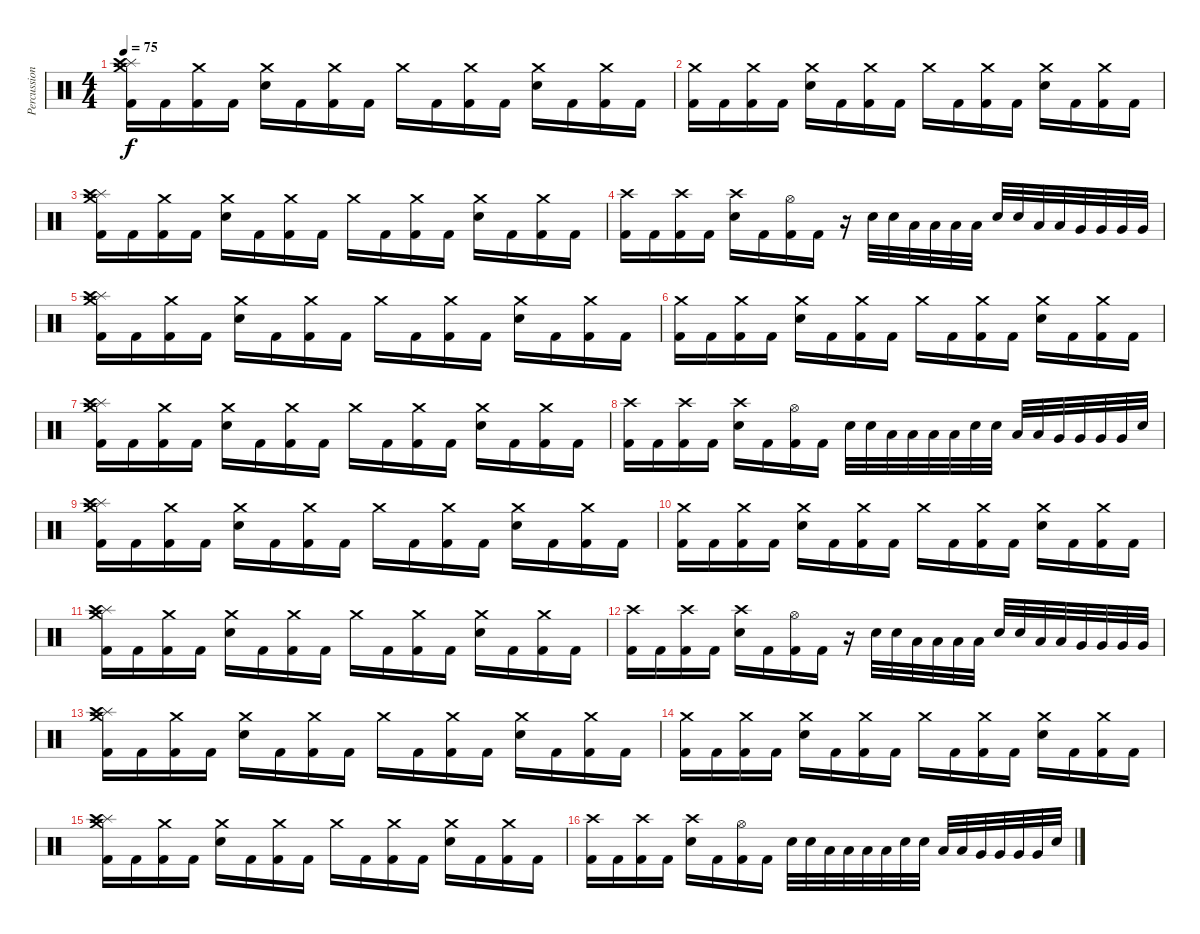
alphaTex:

\track ("Percussion" "Percussion") {instrument percussion}
\staff {score}
\articulation defaults
\ts (4 4)
\tempo 75
\clef neutral
\ks c
("Splash (hit)" "Crash high (hit)" "Crash medium (hit)" "Kick (hit) 2").16{dy f} "Kick (hit) 2".16 ("Crash medium (hit)" "Kick (hit) 2").16 "Kick (hit) 2".16 ("Crash medium (hit)" "Snare (hit) 2").16 "Kick (hit) 2".16 ("Crash medium (hit)" "Kick (hit) 2").16 "Kick (hit) 2".16 "Crash medium (hit)".16 "Kick (hit) 2".16 ("Crash medium (hit)" "Kick (hit) 2").16 "Kick (hit) 2".16 ("Crash medium (hit)" "Snare (hit) 2").16 "Kick (hit) 2".16 ("Crash medium (hit)" "Kick (hit) 2").16 "Kick (hit) 2".16 |
("Crash medium (hit)" "Kick (hit) 2").16 "Kick (hit) 2".16 ("Crash medium (hit)" "Kick (hit) 2").16 "Kick (hit) 2".16 ("Crash medium (hit)" "Snare (hit) 2").16 "Kick (hit) 2".16 ("Crash medium (hit)" "Kick (hit) 2").16 "Kick (hit) 2".16 "Crash medium (hit)".16 "Kick (hit) 2".16 ("Crash medium (hit)" "Kick (hit) 2").16 "Kick (hit) 2".16 ("Crash medium (hit)" "Snare (hit) 2").16 "Kick (hit) 2".16 ("Crash medium (hit)" "Kick (hit) 2").16 "Kick (hit) 2".16 |
("Splash (hit)" "Crash high (hit)" "Crash medium (hit)" "Kick (hit) 2").16 "Kick (hit) 2".16 ("Crash medium (hit)" "Kick (hit) 2").16 "Kick (hit) 2".16 ("Crash medium (hit)" "Snare (hit) 2").16 "Kick (hit) 2".16 ("Crash medium (hit)" "Kick (hit) 2").16 "Kick (hit) 2".16 "Crash medium (hit)".16 "Kick (hit) 2".16 ("Crash medium (hit)" "Kick (hit) 2").16 "Kick (hit) 2".16 ("Crash medium (hit)" "Snare (hit) 2").16 "Kick (hit) 2".16 ("Crash medium (hit)" "Kick (hit) 2").16 "Kick (hit) 2".16 |
("Crash high (hit)" "Kick (hit) 2").16 "Kick (hit) 2".16 ("Crash high (hit)" "Kick (hit) 2").16 "Kick (hit) 2".16 ("Crash high (hit)" "Snare (hit) 2").16 "Kick (hit) 2".16 ("Hi-Hat (open)" "Kick (hit) 2").16 "Kick (hit) 2".16 r.16 "Snare (hit) 2".32 "Snare (hit) 2".32 "Low Tom (hit)".32 "Low Tom (hit)".32 "Low Tom (hit)".32 "Low Tom (hit)".32 "Snare (hit) 2".32 "Snare (hit) 2".32 "Low Tom (hit)".32 "Low Tom (hit)".32 "Very Low Tom (hit)".32 "Very Low Tom (hit)".32 "Very Low Tom (hit)".32 "Very Low Tom (hit)".32 |
("Splash (hit)" "Crash high (hit)" "Crash medium (hit)" "Kick (hit) 2").16 "Kick (hit) 2".16 ("Crash medium (hit)" "Kick (hit) 2").16 "Kick (hit) 2".16 ("Crash medium (hit)" "Snare (hit) 2").16 "Kick (hit) 2".16 ("Crash medium (hit)" "Kick (hit) 2").16 "Kick (hit) 2".16 "Crash medium (hit)".16 "Kick (hit) 2".16 ("Crash medium (hit)" "Kick (hit) 2").16 "Kick (hit) 2".16 ("Crash medium (hit)" "Snare (hit) 2").16 "Kick (hit) 2".16 ("Crash medium (hit)" "Kick (hit) 2").16 "Kick (hit) 2".16 |
("Crash medium (hit)" "Kick (hit) 2").16 "Kick (hit) 2".16 ("Crash medium (hit)" "Kick (hit) 2").16 "Kick (hit) 2".16 ("Crash medium (hit)" "Snare (hit) 2").16 "Kick (hit) 2".16 ("Crash medium (hit)" "Kick (hit) 2").16 "Kick (hit) 2".16 "Crash medium (hit)".16 "Kick (hit) 2".16 ("Crash medium (hit)" "Kick (hit) 2").16 "Kick (hit) 2".16 ("Crash medium (hit)" "Snare (hit) 2").16 "Kick (hit) 2".16 ("Crash medium (hit)" "Kick (hit) 2").16 "Kick (hit) 2".16 |
("Splash (hit)" "Crash high (hit)" "Crash medium (hit)" "Kick (hit) 2").16 "Kick (hit) 2".16 ("Crash medium (hit)" "Kick (hit) 2").16 "Kick (hit) 2".16 ("Crash medium (hit)" "Snare (hit) 2").16 "Kick (hit) 2".16 ("Crash medium (hit)" "Kick (hit) 2").16 "Kick (hit) 2".16 "Crash medium (hit)".16 "Kick (hit) 2".16 ("Crash medium (hit)" "Kick (hit) 2").16 "Kick (hit) 2".16 ("Crash medium (hit)" "Snare (hit) 2").16 "Kick (hit) 2".16 ("Crash medium (hit)" "Kick (hit) 2").16 "Kick (hit) 2".16 |
("Crash high (hit)" "Kick (hit) 2").16 "Kick (hit) 2".16 ("Crash high (hit)" "Kick (hit) 2").16 "Kick (hit) 2".16 ("Crash high (hit)" "Snare (hit) 2").16 "Kick (hit) 2".16 ("Hi-Hat (open)" "Kick (hit) 2").16 "Kick (hit) 2".16 "Snare (hit) 2".32 "Snare (hit) 2".32 "Low Tom (hit)".32 "Low Tom (hit)".32 "Low Tom (hit)".32 "Low Tom (hit)".32 "Snare (hit) 2".32 "Snare (hit) 2".32 "Low Tom (hit)".32 "Low Tom (hit)".32 "Very Low Tom (hit)".32 "Very Low Tom (hit)".32 "Very Low Tom (hit)".32 "Very Low Tom (hit)".32 "Snare (hit) 2".32 |
("Splash (hit)" "Crash high (hit)" "Crash medium (hit)" "Kick (hit) 2").16 "Kick (hit) 2".16 ("Crash medium (hit)" "Kick (hit) 2").16 "Kick (hit) 2".16 ("Crash medium (hit)" "Snare (hit) 2").16 "Kick (hit) 2".16 ("Crash medium (hit)" "Kick (hit) 2").16 "Kick (hit) 2".16 "Crash medium (hit)".16 "Kick (hit) 2".16 ("Crash medium (hit)" "Kick (hit) 2").16 "Kick (hit) 2".16 ("Crash medium (hit)" "Snare (hit) 2").16 "Kick (hit) 2".16 ("Crash medium (hit)" "Kick (hit) 2").16 "Kick (hit) 2".16 |
("Crash medium (hit)" "Kick (hit) 2").16 "Kick (hit) 2".16 ("Crash medium (hit)" "Kick (hit) 2").16 "Kick (hit) 2".16 ("Crash medium (hit)" "Snare (hit) 2").16 "Kick (hit) 2".16 ("Crash medium (hit)" "Kick (hit) 2").16 "Kick (hit) 2".16 "Crash medium (hit)".16 "Kick (hit) 2".16 ("Crash medium (hit)" "Kick (hit) 2").16 "Kick (hit) 2".16 ("Crash medium (hit)" "Snare (hit) 2").16 "Kick (hit) 2".16 ("Crash medium (hit)" "Kick (hit) 2").16 "Kick (hit) 2".16 |
("Splash (hit)" "Crash high (hit)" "Crash medium (hit)" "Kick (hit) 2").16 "Kick (hit) 2".16 ("Crash medium (hit)" "Kick (hit) 2").16 "Kick (hit) 2".16 ("Crash medium (hit)" "Snare (hit) 2").16 "Kick (hit) 2".16 ("Crash medium (hit)" "Kick (hit) 2").16 "Kick (hit) 2".16 "Crash medium (hit)".16 "Kick (hit) 2".16 ("Crash medium (hit)" "Kick (hit) 2").16 "Kick (hit) 2".16 ("Crash medium (hit)" "Snare (hit) 2").16 "Kick (hit) 2".16 ("Crash medium (hit)" "Kick (hit) 2").16 "Kick (hit) 2".16 |
("Crash high (hit)" "Kick (hit) 2").16 "Kick (hit) 2".16 ("Crash high (hit)" "Kick (hit) 2").16 "Kick (hit) 2".16 ("Crash high (hit)" "Snare (hit) 2").16 "Kick (hit) 2".16 ("Hi-Hat (open)" "Kick (hit) 2").16 "Kick (hit) 2".16 r.16 "Snare (hit) 2".32 "Snare (hit) 2".32 "Low Tom (hit)".32 "Low Tom (hit)".32 "Low Tom (hit)".32 "Low Tom (hit)".32 "Snare (hit) 2".32 "Snare (hit) 2".32 "Low Tom (hit)".32 "Low Tom (hit)".32 "Very Low Tom (hit)".32 "Very Low Tom (hit)".32 "Very Low Tom (hit)".32 "Very Low Tom (hit)".32 |
("Splash (hit)" "Crash high (hit)" "Crash medium (hit)" "Kick (hit) 2").16{volume 16} "Kick (hit) 2".16 ("Crash medium (hit)" "Kick (hit) 2").16 "Kick (hit) 2".16 ("Crash medium (hit)" "Snare (hit) 2").16 "Kick (hit) 2".16 ("Crash medium (hit)" "Kick (hit) 2").16 "Kick (hit) 2".16 "Crash medium (hit)".16 "Kick (hit) 2".16 ("Crash medium (hit)" "Kick (hit) 2").16 "Kick (hit) 2".16 ("Crash medium (hit)" "Snare (hit) 2").16 "Kick (hit) 2".16 ("Crash medium (hit)" "Kick (hit) 2").16 "Kick (hit) 2".16 |
("Crash medium (hit)" "Kick (hit) 2").16 "Kick (hit) 2".16 ("Crash medium (hit)" "Kick (hit) 2").16 "Kick (hit) 2".16 ("Crash medium (hit)" "Snare (hit) 2").16 "Kick (hit) 2".16 ("Crash medium (hit)" "Kick (hit) 2").16 "Kick (hit) 2".16 "Crash medium (hit)".16 "Kick (hit) 2".16 ("Crash medium (hit)" "Kick (hit) 2").16 "Kick (hit) 2".16 ("Crash medium (hit)" "Snare (hit) 2").16 "Kick (hit) 2".16 ("Crash medium (hit)" "Kick (hit) 2").16 "Kick (hit) 2".16 |
("Splash (hit)" "Crash high (hit)" "Crash medium (hit)" "Kick (hit) 2").16 "Kick (hit) 2".16 ("Crash medium (hit)" "Kick (hit) 2").16 "Kick (hit) 2".16 ("Crash medium (hit)" "Snare (hit) 2").16 "Kick (hit) 2".16 ("Crash medium (hit)" "Kick (hit) 2").16 "Kick (hit) 2".16 "Crash medium (hit)".16 "Kick (hit) 2".16 ("Crash medium (hit)" "Kick (hit) 2").16 "Kick (hit) 2".16 ("Crash medium (hit)" "Snare (hit) 2").16 "Kick (hit) 2".16 ("Crash medium (hit)" "Kick (hit) 2").16 "Kick (hit) 2".16 |
("Crash high (hit)" "Kick (hit) 2").16 "Kick (hit) 2".16 ("Crash high (hit)" "Kick (hit) 2").16 "Kick (hit) 2".16 ("Crash high (hit)" "Snare (hit) 2").16 "Kick (hit) 2".16 ("Hi-Hat (open)" "Kick (hit) 2").16 "Kick (hit) 2".16 "Snare (hit) 2".32 "Snare (hit) 2".32 "Low Tom (hit)".32 "Low Tom (hit)".32 "Low Tom (hit)".32 "Low Tom (hit)".32 "Snare (hit) 2".32 "Snare (hit) 2".32 "Low Tom (hit)".32 "Low Tom (hit)".32 "Very Low Tom (hit)".32 "Very Low Tom (hit)".32 "Very Low Tom (hit)".32 "Very Low Tom (hit)".32 "Snare (hit) 2".32
